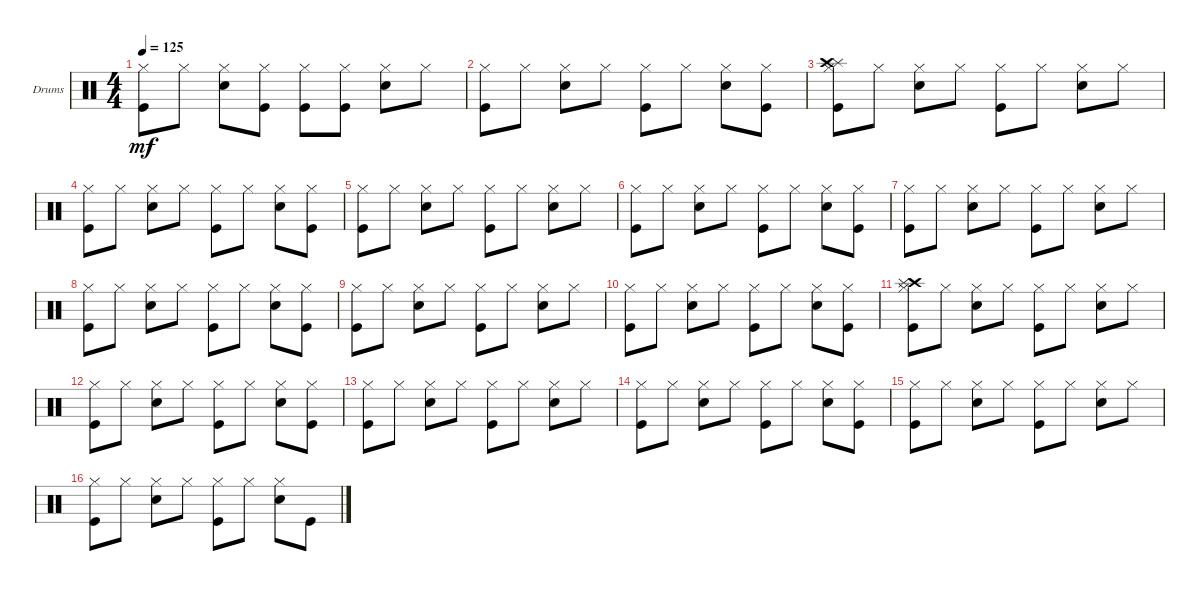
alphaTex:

\defaultSystemsLayout 4
\bracketExtendMode groupsimilarinstruments
\firstSystemTrackNameOrientation horizontal
\otherSystemsTrackNameOrientation horizontal
\track ("Drumkit" "Drums") {instrument percussion}
\staff {score}
\articulation defaults
\ts (4 4)
\tempo 125
\clef neutral
\ks c
("Kick (hit)" "Hi-Hat (closed)").8{dy mf} "Hi-Hat (closed)".8 ("Hi-Hat (closed)" "Snare (hit) 2").8 ("Hi-Hat (closed)" "Kick (hit)").8 ("Kick (hit)" "Hi-Hat (closed)").8 ("Hi-Hat (closed)" "Kick (hit)").8 ("Hi-Hat (closed)" "Snare (hit) 2").8 "Hi-Hat (closed)".8 |
("Kick (hit)" "Hi-Hat (closed)").8 "Hi-Hat (closed)".8 ("Hi-Hat (closed)" "Snare (hit) 2").8 "Hi-Hat (closed)".8 ("Kick (hit)" "Hi-Hat (closed)").8 "Hi-Hat (closed)".8 ("Hi-Hat (closed)" "Snare (hit) 2").8 ("Hi-Hat (closed)" "Kick (hit)").8 |
("Kick (hit)" "Hi-Hat (closed)" "Splash (hit)" "Crash high (hit)").8 "Hi-Hat (closed)".8 ("Hi-Hat (closed)" "Snare (hit) 2").8 "Hi-Hat (closed)".8 ("Kick (hit)" "Hi-Hat (closed)").8 "Hi-Hat (closed)".8 ("Hi-Hat (closed)" "Snare (hit) 2").8 "Hi-Hat (closed)".8 |
("Kick (hit)" "Hi-Hat (closed)").8 "Hi-Hat (closed)".8 ("Hi-Hat (closed)" "Snare (hit) 2").8 "Hi-Hat (closed)".8 ("Kick (hit)" "Hi-Hat (closed)").8 "Hi-Hat (closed)".8 ("Hi-Hat (closed)" "Snare (hit) 2").8 ("Hi-Hat (closed)" "Kick (hit)").8 |
("Kick (hit)" "Hi-Hat (closed)").8 "Hi-Hat (closed)".8 ("Hi-Hat (closed)" "Snare (hit) 2").8 "Hi-Hat (closed)".8 ("Kick (hit)" "Hi-Hat (closed)").8 "Hi-Hat (closed)".8 ("Hi-Hat (closed)" "Snare (hit) 2").8 "Hi-Hat (closed)".8 |
("Kick (hit)" "Hi-Hat (closed)").8 "Hi-Hat (closed)".8 ("Hi-Hat (closed)" "Snare (hit) 2").8 "Hi-Hat (closed)".8 ("Kick (hit)" "Hi-Hat (closed)").8 "Hi-Hat (closed)".8 ("Hi-Hat (closed)" "Snare (hit) 2").8 ("Hi-Hat (closed)" "Kick (hit)").8 |
("Kick (hit)" "Hi-Hat (closed)").8 "Hi-Hat (closed)".8 ("Hi-Hat (closed)" "Snare (hit) 2").8 "Hi-Hat (closed)".8 ("Kick (hit)" "Hi-Hat (closed)").8 "Hi-Hat (closed)".8 ("Hi-Hat (closed)" "Snare (hit) 2").8 "Hi-Hat (closed)".8 |
("Kick (hit)" "Hi-Hat (closed)").8 "Hi-Hat (closed)".8 ("Hi-Hat (closed)" "Snare (hit) 2").8 "Hi-Hat (closed)".8 ("Kick (hit)" "Hi-Hat (closed)").8 "Hi-Hat (closed)".8 ("Hi-Hat (closed)" "Snare (hit) 2").8 ("Hi-Hat (closed)" "Kick (hit)").8 |
("Kick (hit)" "Hi-Hat (closed)").8 "Hi-Hat (closed)".8 ("Hi-Hat (closed)" "Snare (hit) 2").8 "Hi-Hat (closed)".8 ("Kick (hit)" "Hi-Hat (closed)").8 "Hi-Hat (closed)".8 ("Hi-Hat (closed)" "Snare (hit) 2").8 "Hi-Hat (closed)".8 |
("Kick (hit)" "Hi-Hat (closed)").8 "Hi-Hat (closed)".8 ("Snare (hit) 2" "Hi-Hat (closed)").8 "Hi-Hat (closed)".8 ("Kick (hit)" "Hi-Hat (closed)").8 "Hi-Hat (closed)".8 ("Hi-Hat (closed)" "Snare (hit) 2").8 ("Hi-Hat (closed)" "Kick (hit)").8 |
("Kick (hit)" "Hi-Hat (closed)" "Crash high (hit)" "Splash (hit)").8 "Hi-Hat (closed)".8 ("Hi-Hat (closed)" "Snare (hit) 2").8 "Hi-Hat (closed)".8 ("Kick (hit)" "Hi-Hat (closed)").8 "Hi-Hat (closed)".8 ("Hi-Hat (closed)" "Snare (hit) 2").8 "Hi-Hat (closed)".8 |
("Kick (hit)" "Hi-Hat (closed)").8 "Hi-Hat (closed)".8 ("Hi-Hat (closed)" "Snare (hit) 2").8 "Hi-Hat (closed)".8 ("Kick (hit)" "Hi-Hat (closed)").8 "Hi-Hat (closed)".8 ("Hi-Hat (closed)" "Snare (hit) 2").8 ("Hi-Hat (closed)" "Kick (hit)").8 |
("Kick (hit)" "Hi-Hat (closed)").8 "Hi-Hat (closed)".8 ("Hi-Hat (closed)" "Snare (hit) 2").8 "Hi-Hat (closed)".8 ("Kick (hit)" "Hi-Hat (closed)").8 "Hi-Hat (closed)".8 ("Hi-Hat (closed)" "Snare (hit) 2").8 "Hi-Hat (closed)".8 |
("Kick (hit)" "Hi-Hat (closed)").8 "Hi-Hat (closed)".8 ("Hi-Hat (closed)" "Snare (hit) 2").8 "Hi-Hat (closed)".8 ("Kick (hit)" "Hi-Hat (closed)").8 "Hi-Hat (closed)".8 ("Hi-Hat (closed)" "Snare (hit) 2").8 ("Hi-Hat (closed)" "Kick (hit)").8 |
("Kick (hit)" "Hi-Hat (closed)").8 "Hi-Hat (closed)".8 ("Hi-Hat (closed)" "Snare (hit) 2").8 "Hi-Hat (closed)".8 ("Kick (hit)" "Hi-Hat (closed)").8 "Hi-Hat (closed)".8 ("Hi-Hat (closed)" "Snare (hit) 2").8 "Hi-Hat (closed)".8 |
("Kick (hit)" "Hi-Hat (closed)").8 "Hi-Hat (closed)".8 ("Hi-Hat (closed)" "Snare (hit) 2").8 "Hi-Hat (closed)".8 ("Kick (hit)" "Hi-Hat (closed)").8 "Hi-Hat (closed)".8 ("Hi-Hat (closed)" "Snare (hit) 2").8 "Kick (hit)".8
